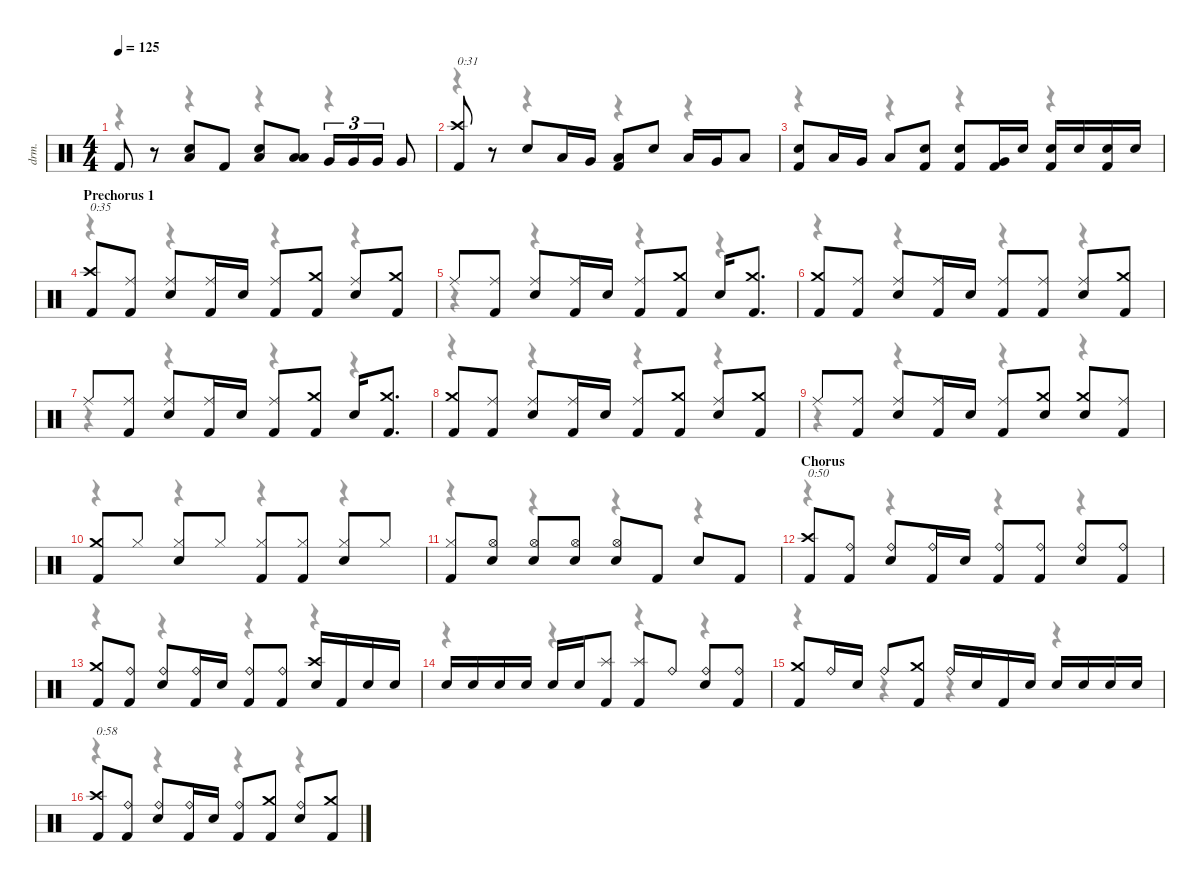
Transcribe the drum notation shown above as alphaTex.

\defaultSystemsLayout 4
\hideDynamics
\bracketExtendMode nobrackets
\otherSystemsTrackNameOrientation horizontal
\track ("Drums" "drm.") {instrument percussion}
\staff {score}
\articulation defaults
\voice
\ts (4 4)
\tempo 125
\clef neutral
\ks c "Kick (hit) 2".8{dy f beam Up}
r.8{beam Up} ("Low Floor Tom (hit)" "Snare (hit) 2").8{beam Up} "Kick (hit) 2".8{beam Up} ("Low Floor Tom (hit)" "Snare (hit) 2").8{beam Up} ("Low Floor Tom (hit)" "Low Tom (hit)").8{beam Up} "Very Low Tom (hit)".16{tu (3 2) beam Up} "Very Low Tom (hit)".16{tu (3 2) beam Up} "Very Low Tom (hit)".16{tu (3 2) beam Up} "Very Low Tom (hit)".8{beam Up} |
("Crash high (hit)" "Kick (hit) 2").8{txt "0:31" beam Up} r.8{beam Up} "Snare (hit) 2".8{beam Up} "Low Tom (hit)".16{beam Up} "Very Low Tom (hit)".16{beam Up} ("Low Floor Tom (hit)" "Kick (hit) 2").8{beam Up} "Snare (hit) 2".8{beam Up} "Low Tom (hit)".16{beam Up} "Very Low Tom (hit)".16{beam Up} "Low Floor Tom (hit)".8{beam Up} |
("Snare (hit) 2" "Kick (hit) 2").8{beam Up} "Low Tom (hit)".16{beam Up} "Very Low Tom (hit)".16{beam Up} "Low Floor Tom (hit)".8{beam Up} ("Snare (hit) 2" "Kick (hit) 2").8{beam Up} ("Snare (hit) 2" "Kick (hit) 2").8{beam Up} ("Very Low Tom (hit)" "Kick (hit) 2").16{beam Up} "Snare (hit) 2".16{beam Up} ("Snare (hit) 2" "Kick (hit) 2").16{beam Up} "Snare (hit) 2".16{beam Up} ("Snare (hit) 2" "Kick (hit) 2").16{beam Up} "Snare (hit) 2".16{beam Up} |
\section ("" "Prechorus 1")
("Crash high (hit)" "Kick (hit) 2").8{txt "0:35" beam Up} ("Ride (middle)" "Kick (hit) 2").8{beam Up} ("Ride (middle)" "Snare (hit) 2").8{beam Up} ("Ride (middle)" "Kick (hit) 2").16{beam Up} "Snare (hit) 2".16{beam Up} ("Ride (middle)" "Kick (hit) 2").8{beam Up} ("Crash medium (hit)" "Kick (hit) 2").8{beam Up} ("Ride (middle)" "Snare (hit) 2").8{beam Up} ("Crash medium (hit)" "Kick (hit) 2").8{beam Up} |
"Ride (middle)".8{beam Up} ("Ride (middle)" "Kick (hit) 2").8{beam Up} ("Ride (middle)" "Snare (hit) 2").8{beam Up} ("Ride (middle)" "Kick (hit) 2").16{beam Up} "Snare (hit) 2".16{beam Up} ("Ride (middle)" "Kick (hit) 2").8{beam Up} ("Crash medium (hit)" "Kick (hit) 2").8{beam Up} "Snare (hit) 2".16{beam Up} ("Crash medium (hit)" "Kick (hit) 2").8{d beam Up} |
("Crash medium (hit)" "Kick (hit) 2").8{beam Up} ("Ride (middle)" "Kick (hit) 2").8{beam Up} ("Ride (middle)" "Snare (hit) 2").8{beam Up} ("Ride (middle)" "Kick (hit) 2").16{beam Up} "Snare (hit) 2".16{beam Up} ("Ride (middle)" "Kick (hit) 2").8{beam Up} ("Ride (middle)" "Kick (hit) 2").8{beam Up} ("Ride (middle)" "Snare (hit) 2").8{beam Up} ("Crash medium (hit)" "Kick (hit) 2").8{beam Up} |
"Ride (middle)".8{beam Up} ("Ride (middle)" "Kick (hit) 2").8{beam Up} ("Ride (middle)" "Snare (hit) 2").8{beam Up} ("Ride (middle)" "Kick (hit) 2").16{beam Up} "Snare (hit) 2".16{beam Up} ("Ride (middle)" "Kick (hit) 2").8{beam Up} ("Crash medium (hit)" "Kick (hit) 2").8{beam Up} "Snare (hit) 2".16{beam Up} ("Crash medium (hit)" "Kick (hit) 2").8{d beam Up} |
("Crash medium (hit)" "Kick (hit) 2").8{beam Up} ("Ride (middle)" "Kick (hit) 2").8{beam Up} ("Ride (middle)" "Snare (hit) 2").8{beam Up} ("Ride (middle)" "Kick (hit) 2").16{beam Up} "Snare (hit) 2".16{beam Up} ("Ride (middle)" "Kick (hit) 2").8{beam Up} ("Crash medium (hit)" "Kick (hit) 2").8{beam Up} ("Ride (middle)" "Snare (hit) 2").8{beam Up} ("Crash medium (hit)" "Kick (hit) 2").8{beam Up} |
"Ride (middle)".8{beam Up} ("Ride (middle)" "Kick (hit) 2").8{beam Up} ("Ride (middle)" "Snare (hit) 2").8{beam Up} ("Ride (middle)" "Kick (hit) 2").16{beam Up} "Snare (hit) 2".16{beam Up} ("Ride (middle)" "Kick (hit) 2").8{beam Up} ("Crash medium (hit)" "Snare (hit) 2").8{beam Up} ("Crash medium (hit)" "Snare (hit) 2").8{beam Up} ("Ride (middle)" "Kick (hit) 2").8{beam Up} |
("Crash medium (hit)" "Kick (hit) 2").8{beam Up} "Hi-Hat (closed)".8{beam Up} ("Hi-Hat (closed)" "Snare (hit) 2").8{beam Up} "Hi-Hat (closed)".8{beam Up} ("Hi-Hat (closed)" "Kick (hit) 2").8{beam Up} ("Hi-Hat (closed)" "Kick (hit) 2").8{beam Up} ("Hi-Hat (closed)" "Snare (hit) 2").8{beam Up} "Hi-Hat (closed)".8{beam Up} |
("Hi-Hat (closed)" "Kick (hit) 2").8{beam Up} ("Hi-Hat (open)" "Snare (hit) 2").8{beam Up} ("Hi-Hat (open)" "Snare (hit) 2").8{beam Up} ("Hi-Hat (open)" "Snare (hit) 2").8{beam Up} ("Hi-Hat (open)" "Snare (hit) 2").8{beam Up} "Kick (hit) 2".8{beam Up} "Snare (hit) 2".8{beam Up} "Kick (hit) 2".8{beam Up} |
\section ("" "Chorus")
("Crash high (hit)" "Kick (hit) 2").8{txt "0:50" beam Up} ("Ride (bell)" "Kick (hit) 2").8{beam Up} ("Ride (bell)" "Snare (hit) 2").8{beam Up} ("Ride (bell)" "Kick (hit) 2").16{beam Up} "Snare (hit) 2".16{beam Up} ("Ride (bell)" "Kick (hit) 2").8{beam Up} ("Ride (bell)" "Kick (hit) 2").8{beam Up} ("Ride (bell)" "Snare (hit) 2").8{beam Up} ("Ride (bell)" "Kick (hit) 2").8{beam Up} |
("Crash medium (hit)" "Kick (hit) 2").8{beam Up} ("Ride (bell)" "Kick (hit) 2").8{beam Up} ("Ride (bell)" "Snare (hit) 2").8{beam Up} ("Ride (bell)" "Kick (hit) 2").16{beam Up} "Snare (hit) 2".16{beam Up} ("Ride (bell)" "Kick (hit) 2").8{beam Up} ("Ride (bell)" "Kick (hit) 2").8{beam Up} ("Crash high (hit)" "Snare (hit) 2").16{beam Up} "Kick (hit) 2".16{beam Up} "Snare (hit) 2".16{beam Up} "Snare (hit) 2".16{beam Up} |
"Snare (hit) 2".16{beam Up} "Snare (hit) 2".16{beam Up} "Snare (hit) 2".16{beam Up} "Snare (hit) 2".16{beam Up} "Snare (hit) 2".16{beam Up} "Snare (hit) 2".16{beam Up} ("Splash (hit)" "Kick (hit) 2").8{beam Up} ("Splash (hit)" "Kick (hit) 2").8{beam Up} "Ride (bell)".8{beam Up} ("Ride (bell)" "Snare (hit) 2").8{beam Up} ("Ride (bell)" "Kick (hit) 2").8{beam Up} |
("Crash medium (hit)" "Kick (hit) 2").8{beam Up} "Ride (bell)".16{beam Up} "Snare (hit) 2".16{beam Up} "Ride (bell)".8{beam Up} ("Crash medium (hit)" "Kick (hit) 2").8{beam Up} "Ride (bell)".16{beam Up} "Snare (hit) 2".16{beam Up} "Kick (hit) 2".16{beam Up} "Snare (hit) 2".16{beam Up} "Snare (hit) 2".16{beam Up} "Snare (hit) 2".16{beam Up} "Snare (hit) 2".16{beam Up} "Snare (hit) 2".16{beam Up} |
("Crash high (hit)" "Kick (hit) 2").8{txt "0:58" beam Up} ("Ride (bell)" "Kick (hit) 2").8{beam Up} ("Ride (bell)" "Snare (hit) 2").8{beam Up} ("Ride (bell)" "Kick (hit) 2").16{beam Up} "Snare (hit) 2".16{beam Up} ("Ride (bell)" "Kick (hit) 2").8{beam Up} ("Crash medium (hit)" "Kick (hit) 2").8{beam Up} ("Ride (bell)" "Snare (hit) 2").8{beam Up} ("Crash medium (hit)" "Kick (hit) 2").8{beam Up}
\voice
\clef neutral
\ottava regular
\simile none
\ks c
r.4{dy mf beam Down} r.4{beam Down} r.4{beam Down} r.4{beam Down} |
r.4{beam Down} r.4{beam Down} r.4{beam Down} r.4{beam Down} |
r.4{beam Down} r.4{beam Down} r.4{beam Down} r.4{beam Down} |
r.4{beam Down} r.4{beam Down} r.4{beam Down} r.4{beam Down} |
r.4{beam Down} r.4{beam Down} r.4{beam Down} r.4{beam Down} |
r.4{beam Down} r.4{beam Down} r.4{beam Down} r.4{beam Down} |
r.4{beam Down} r.4{beam Down} r.4{beam Down} r.4{beam Down} |
r.4{beam Down} r.4{beam Down} r.4{beam Down} r.4{beam Down} |
r.4{beam Down} r.4{beam Down} r.4{beam Down} r.4{beam Down} |
r.4{beam Down} r.4{beam Down} r.4{beam Down} r.4{beam Down} |
r.4{beam Down} r.4{beam Down} r.4{beam Down} r.4{beam Down} |
r.4{beam Down} r.4{beam Down} r.4{beam Down} r.4{beam Down} |
r.4{beam Down} r.4{beam Down} r.4{beam Down} r.4{beam Down} |
r.4{beam Down} r.4{beam Down} r.4{beam Down} r.4{beam Down} |
r.4{beam Down} r.4{beam Down} r.4{beam Down} r.4{beam Down} |
r.4{beam Down} r.4{beam Down} r.4{beam Down} r.4{beam Down}
